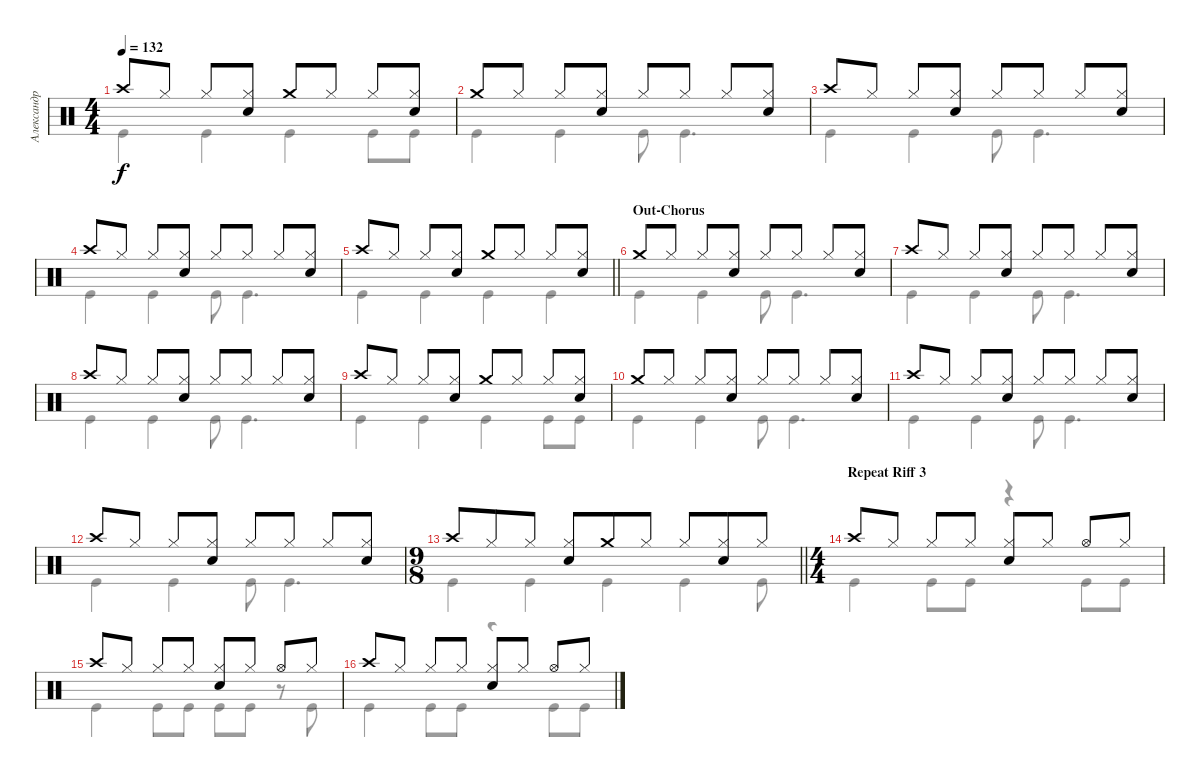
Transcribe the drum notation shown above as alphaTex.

\track ("Александр Манякин" "Александр ") {instrument percussion}
\staff {score}
\articulation defaults
\voice
\ts (4 4)
\tempo 132
\clef neutral
\ks c "Crash high (hit)".8{dy f} "Hi-Hat (closed)".8 "Hi-Hat (closed)".8
("Hi-Hat (closed)" "Snare (hit) 2").8 "Crash medium (hit)".8 "Hi-Hat (closed)".8 "Hi-Hat (closed)".8 ("Hi-Hat (closed)" "Snare (hit) 2").8 |
"Crash medium (hit)".8 "Hi-Hat (closed)".8 "Hi-Hat (closed)".8 ("Hi-Hat (closed)" "Snare (hit) 2").8 "Hi-Hat (closed)".8 "Hi-Hat (closed)".8 "Hi-Hat (closed)".8 ("Hi-Hat (closed)" "Snare (hit) 2").8 |
"Crash high (hit)".8 "Hi-Hat (closed)".8 "Hi-Hat (closed)".8 ("Hi-Hat (closed)" "Snare (hit) 2").8 "Hi-Hat (closed)".8 "Hi-Hat (closed)".8 "Hi-Hat (closed)".8 ("Hi-Hat (closed)" "Snare (hit) 2").8 |
"Crash high (hit)".8 "Hi-Hat (closed)".8 "Hi-Hat (closed)".8 ("Hi-Hat (closed)" "Snare (hit) 2").8 "Hi-Hat (closed)".8 "Hi-Hat (closed)".8 "Hi-Hat (closed)".8 ("Hi-Hat (closed)" "Snare (hit) 2").8 |
\barLineRight lightlight "Crash high (hit)".8 "Hi-Hat (closed)".8 "Hi-Hat (closed)".8
("Hi-Hat (closed)" "Snare (hit) 2").8 "Crash medium (hit)".8 "Hi-Hat (closed)".8 "Hi-Hat (closed)".8 ("Hi-Hat (closed)" "Snare (hit) 2").8 |
\section ("" "Out-Chorus")
"Crash medium (hit)".8 "Hi-Hat (closed)".8 "Hi-Hat (closed)".8 ("Hi-Hat (closed)" "Snare (hit) 2").8 "Hi-Hat (closed)".8 "Hi-Hat (closed)".8 "Hi-Hat (closed)".8 ("Hi-Hat (closed)" "Snare (hit) 2").8 |
"Crash high (hit)".8 "Hi-Hat (closed)".8 "Hi-Hat (closed)".8 ("Hi-Hat (closed)" "Snare (hit) 2").8 "Hi-Hat (closed)".8 "Hi-Hat (closed)".8 "Hi-Hat (closed)".8 ("Hi-Hat (closed)" "Snare (hit) 2").8 |
"Crash high (hit)".8 "Hi-Hat (closed)".8 "Hi-Hat (closed)".8 ("Hi-Hat (closed)" "Snare (hit) 2").8 "Hi-Hat (closed)".8 "Hi-Hat (closed)".8 "Hi-Hat (closed)".8 ("Hi-Hat (closed)" "Snare (hit) 2").8 |
"Crash high (hit)".8 "Hi-Hat (closed)".8 "Hi-Hat (closed)".8 ("Hi-Hat (closed)" "Snare (hit) 2").8 "Crash medium (hit)".8 "Hi-Hat (closed)".8 "Hi-Hat (closed)".8 ("Hi-Hat (closed)" "Snare (hit) 2").8 |
"Crash medium (hit)".8 "Hi-Hat (closed)".8 "Hi-Hat (closed)".8 ("Hi-Hat (closed)" "Snare (hit) 2").8 "Hi-Hat (closed)".8 "Hi-Hat (closed)".8 "Hi-Hat (closed)".8 ("Hi-Hat (closed)" "Snare (hit) 2").8 |
"Crash high (hit)".8 "Hi-Hat (closed)".8 "Hi-Hat (closed)".8 ("Hi-Hat (closed)" "Snare (hit) 2").8 "Hi-Hat (closed)".8 "Hi-Hat (closed)".8 "Hi-Hat (closed)".8 ("Hi-Hat (closed)" "Snare (hit) 2").8 |
"Crash high (hit)".8 "Hi-Hat (closed)".8 "Hi-Hat (closed)".8 ("Hi-Hat (closed)" "Snare (hit) 2").8 "Hi-Hat (closed)".8 "Hi-Hat (closed)".8 "Hi-Hat (closed)".8 ("Hi-Hat (closed)" "Snare (hit) 2").8 |
\ts (9 8)
\barLineRight lightlight "Crash high (hit)".8 "Hi-Hat (closed)".8 "Hi-Hat (closed)".8
("Hi-Hat (closed)" "Snare (hit) 2").8 "Crash medium (hit)".8 "Hi-Hat (closed)".8 "Hi-Hat (closed)".8 ("Hi-Hat (closed)" "Snare (hit) 2").8 "Hi-Hat (closed)".8 |
\ts (4 4)
\section ("" "Repeat Riff 3")
"Crash high (hit)".8 "Hi-Hat (closed)".8 "Hi-Hat (closed)".8 "Hi-Hat (closed)".8 ("Hi-Hat (closed)" "Snare (hit) 2").8 "Hi-Hat (closed)".8 "Hi-Hat (open)".8 "Hi-Hat (closed)".8 |
"Crash high (hit)".8 "Hi-Hat (closed)".8 "Hi-Hat (closed)".8 "Hi-Hat (closed)".8 ("Hi-Hat (closed)" "Snare (hit) 2").8 "Hi-Hat (closed)".8 "Hi-Hat (open)".8 "Hi-Hat (closed)".8 |
"Crash high (hit)".8 "Hi-Hat (closed)".8 "Hi-Hat (closed)".8 "Hi-Hat (closed)".8 ("Hi-Hat (closed)" "Snare (hit) 2").8 "Hi-Hat (closed)".8 "Hi-Hat (open)".8 "Hi-Hat (closed)".8
\voice
\clef neutral
\ottava regular
\simile none
\ks c "Kick (hit)".4{dy f} "Kick (hit)".4 "Kick (hit)".4 "Kick (hit)".8 "Kick (hit)".8
|
"Kick (hit)".4 "Kick (hit)".4 "Kick (hit)".8 "Kick (hit)".4{d} |
"Kick (hit)".4 "Kick (hit)".4 "Kick (hit)".8 "Kick (hit)".4{d} |
"Kick (hit)".4 "Kick (hit)".4 "Kick (hit)".8 "Kick (hit)".4{d} |
\barLineRight lightlight "Kick (hit)".4 "Kick (hit)".4 "Kick (hit)".4 "Kick (hit)".4
|
"Kick (hit)".4 "Kick (hit)".4 "Kick (hit)".8 "Kick (hit)".4{d} |
"Kick (hit)".4 "Kick (hit)".4 "Kick (hit)".8 "Kick (hit)".4{d} |
"Kick (hit)".4 "Kick (hit)".4 "Kick (hit)".8 "Kick (hit)".4{d} |
"Kick (hit)".4 "Kick (hit)".4 "Kick (hit)".4 "Kick (hit)".8 "Kick (hit)".8 |
"Kick (hit)".4 "Kick (hit)".4 "Kick (hit)".8 "Kick (hit)".4{d} |
"Kick (hit)".4 "Kick (hit)".4 "Kick (hit)".8 "Kick (hit)".4{d} |
"Kick (hit)".4 "Kick (hit)".4 "Kick (hit)".8 "Kick (hit)".4{d} |
\barLineRight lightlight "Kick (hit)".4 "Kick (hit)".4 "Kick (hit)".4 "Kick (hit)".4 "Kick (hit)".8
|
"Kick (hit)".4 "Kick (hit)".8 "Kick (hit)".8 r.4 "Kick (hit)".8 "Kick (hit)".8 |
"Kick (hit)".4 "Kick (hit)".8 "Kick (hit)".8 "Kick (hit)".8 "Kick (hit)".8 r.8 "Kick (hit)".8 |
"Kick (hit)".4 "Kick (hit)".8 "Kick (hit)".8 r.4 "Kick (hit)".8 "Kick (hit)".8
